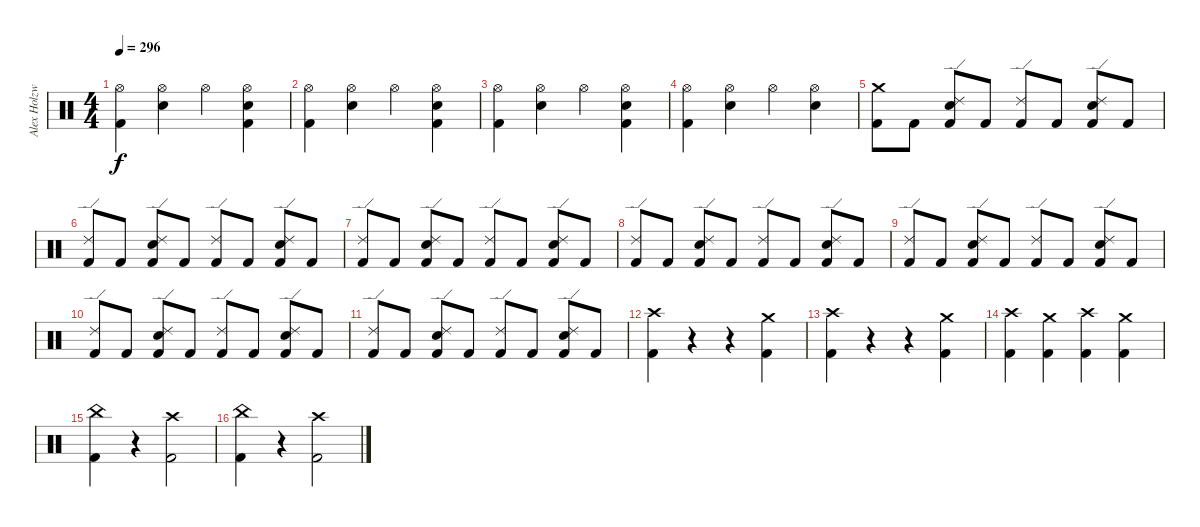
\track ("Alex Holzwarth" "Alex Holzw") {instrument percussion}
\staff {score}
\articulation defaults
\ts (4 4)
\tempo 296
\clef neutral
\ks c
("Hi-Hat (open)" "Kick (hit) 2").4{dy f} ("Hi-Hat (open)" "Snare (hit) 2").4 "Hi-Hat (open)".4 ("Hi-Hat (open)" "Snare (hit) 2" "Kick (hit) 2").4 |
("Hi-Hat (open)" "Kick (hit) 2").4 ("Hi-Hat (open)" "Snare (hit) 2").4 "Hi-Hat (open)".4 ("Hi-Hat (open)" "Snare (hit) 2" "Kick (hit) 2").4 |
("Hi-Hat (open)" "Kick (hit) 2").4 ("Hi-Hat (open)" "Snare (hit) 2").4 "Hi-Hat (open)".4 ("Hi-Hat (open)" "Snare (hit) 2" "Kick (hit) 2").4 |
("Hi-Hat (open)" "Kick (hit) 2").4 ("Hi-Hat (open)" "Snare (hit) 2").4 "Hi-Hat (open)".4 ("Hi-Hat (open)" "Snare (hit) 2").4 |
("Crash medium (hit)" "Kick (hit) 2").8 "Kick (hit) 2".8 ("Ride (edge) 2" "Snare (hit) 2" "Kick (hit) 2").8 "Kick (hit) 2".8 ("Ride (edge) 2" "Kick (hit) 2").8 "Kick (hit) 2".8 ("Ride (edge) 2" "Snare (hit) 2" "Kick (hit) 2").8 "Kick (hit) 2".8 |
("Ride (edge) 2" "Kick (hit) 2").8 "Kick (hit) 2".8 ("Ride (edge) 2" "Snare (hit) 2" "Kick (hit) 2").8 "Kick (hit) 2".8 ("Ride (edge) 2" "Kick (hit) 2").8 "Kick (hit) 2".8 ("Ride (edge) 2" "Snare (hit) 2" "Kick (hit) 2").8 "Kick (hit) 2".8 |
("Ride (edge) 2" "Kick (hit) 2").8 "Kick (hit) 2".8 ("Ride (edge) 2" "Snare (hit) 2" "Kick (hit) 2").8 "Kick (hit) 2".8 ("Ride (edge) 2" "Kick (hit) 2").8 "Kick (hit) 2".8 ("Ride (edge) 2" "Snare (hit) 2" "Kick (hit) 2").8 "Kick (hit) 2".8 |
("Ride (edge) 2" "Kick (hit) 2").8 "Kick (hit) 2".8 ("Ride (edge) 2" "Snare (hit) 2" "Kick (hit) 2").8 "Kick (hit) 2".8 ("Ride (edge) 2" "Kick (hit) 2").8 "Kick (hit) 2".8 ("Ride (edge) 2" "Snare (hit) 2" "Kick (hit) 2").8 "Kick (hit) 2".8 |
("Ride (edge) 2" "Kick (hit) 2").8 "Kick (hit) 2".8 ("Ride (edge) 2" "Snare (hit) 2" "Kick (hit) 2").8 "Kick (hit) 2".8 ("Ride (edge) 2" "Kick (hit) 2").8 "Kick (hit) 2".8 ("Ride (edge) 2" "Snare (hit) 2" "Kick (hit) 2").8 "Kick (hit) 2".8 |
("Ride (edge) 2" "Kick (hit) 2").8 "Kick (hit) 2".8 ("Ride (edge) 2" "Snare (hit) 2" "Kick (hit) 2").8 "Kick (hit) 2".8 ("Ride (edge) 2" "Kick (hit) 2").8 "Kick (hit) 2".8 ("Ride (edge) 2" "Snare (hit) 2" "Kick (hit) 2").8 "Kick (hit) 2".8 |
("Ride (edge) 2" "Kick (hit) 2").8 "Kick (hit) 2".8 ("Ride (edge) 2" "Snare (hit) 2" "Kick (hit) 2").8 "Kick (hit) 2".8 ("Ride (edge) 2" "Kick (hit) 2").8 "Kick (hit) 2".8 ("Ride (edge) 2" "Snare (hit) 2" "Kick (hit) 2").8 "Kick (hit) 2".8 |
("Crash high (hit)" "Kick (hit) 2").4 r.4 r.4 ("Crash medium (hit)" "Kick (hit) 2").4 |
("Crash high (hit)" "Kick (hit) 2").4 r.4 r.4 ("Crash medium (hit)" "Kick (hit) 2").4 |
("Crash high (hit)" "Kick (hit) 2").4 ("Crash medium (hit)" "Kick (hit) 2").4 ("Crash high (hit)" "Kick (hit) 2").4 ("Crash medium (hit)" "Kick (hit) 2").4 |
("China (hit)" "Kick (hit) 2").4 r.4 ("Crash high (hit)" "Kick (hit) 2").2 |
("China (hit)" "Kick (hit) 2").4 r.4 ("Crash high (hit)" "Kick (hit) 2").2
